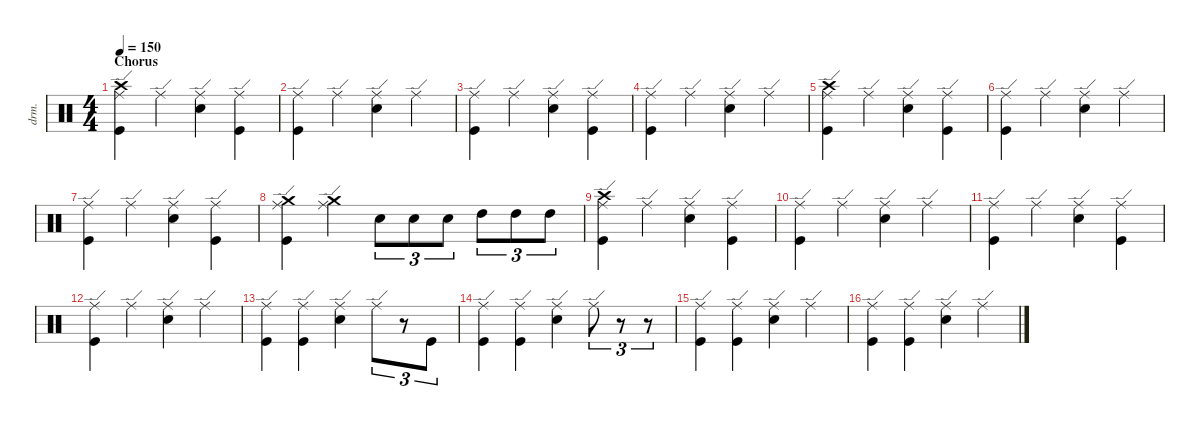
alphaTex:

\defaultSystemsLayout 4
\hideDynamics
\bracketExtendMode nobrackets
\otherSystemsTrackNameOrientation horizontal
\track ("Drumkit" "drm.") {solo instrument percussion}
\staff {score}
\articulation defaults
\ts (4 4)
\section ("" "Chorus")
\scale
1.15555
\tempo 150
\accidentals auto
\clef neutral
\ottava regular
\simile none
\ks aminor
("Kick (hit)" "Ride (edge)" "Crash high (hit)").4{dy mf beam Down} "Ride (edge)".4{beam Down} ("Ride (edge)" "Snare (hit) 2").4{beam Down} ("Kick (hit)" "Ride (edge)").4{beam Down} |
\scale
0.977779 ("Kick (hit)" "Ride (edge)").4{beam Down} "Ride (edge)".4{beam Down} ("Ride (edge)" "Snare (hit) 2").4{beam Down} "Ride (edge)".4{beam Down} |
\scale
0.977779 ("Kick (hit)" "Ride (edge)").4{beam Down} "Ride (edge)".4{beam Down} ("Ride (edge)" "Snare (hit) 2").4{beam Down} ("Kick (hit)" "Ride (edge)").4{beam Down} |
\scale
0.977779 ("Kick (hit)" "Ride (edge)").4{beam Down} "Ride (edge)".4{beam Down} ("Ride (edge)" "Snare (hit) 2").4{beam Down} "Ride (edge)".4{beam Down} |
\scale
0.977779 ("Kick (hit)" "Ride (edge)" "Crash high (hit)").4{beam Down} "Ride (edge)".4{beam Down} ("Ride (edge)" "Snare (hit) 2").4{beam Down} ("Kick (hit)" "Ride (edge)").4{beam Down} |
\scale
0.977779 ("Kick (hit)" "Ride (edge)").4{beam Down} "Ride (edge)".4{beam Down} ("Ride (edge)" "Snare (hit) 2").4{beam Down} "Ride (edge)".4{beam Down} |
\scale
0.977779 ("Kick (hit)" "Ride (edge)").4{beam Down} "Ride (edge)".4{beam Down} ("Ride (edge)" "Snare (hit) 2").4{beam Down} ("Kick (hit)" "Ride (edge)").4{beam Down} |
\scale
0.977779 ("Kick (hit)" "Ride (edge)" "Crash medium (hit)").4{beam Down} ("Ride (edge)" "Crash medium (hit)").4{beam Down} "Snare (hit) 2".8{tu (3 2) beam Down} "Snare (hit) 2".8{tu (3 2) beam Down} "Snare (hit) 2".8{tu (3 2) beam Down} "High Tom (hit)".8{tu (3 2) beam Down} "High Tom (hit)".8{tu (3 2) beam Down} "High Tom (hit)".8{tu (3 2) beam Down} |
\scale
1.16034 ("Kick (hit)" "Ride (edge)" "Crash high (hit)").4{beam Down} "Ride (edge)".4{beam Down} ("Ride (edge)" "Snare (hit) 2").4{beam Down} ("Kick (hit)" "Ride (edge)").4{beam Down} |
\scale
0.972042 ("Kick (hit)" "Ride (edge)").4{beam Down} "Ride (edge)".4{beam Down} ("Ride (edge)" "Snare (hit) 2").4{beam Down} "Ride (edge)".4{beam Down} |
\scale
0.972042 ("Kick (hit)" "Ride (edge)").4{beam Down} "Ride (edge)".4{beam Down} ("Ride (edge)" "Snare (hit) 2").4{beam Down} ("Kick (hit)" "Ride (edge)").4{beam Down} |
\scale
0.972042 ("Kick (hit)" "Ride (edge)").4{beam Down} "Ride (edge)".4{beam Down} ("Ride (edge)" "Snare (hit) 2").4{beam Down} "Ride (edge)".4{beam Down} |
\scale
0.972042 ("Kick (hit)" "Ride (edge)").4{beam Down} ("Ride (edge)" "Kick (hit)").4{beam Down} ("Ride (edge)" "Snare (hit) 2").4{beam Down} "Ride (edge)".8{tu (3 2) beam Down} r.8{tu (3 2) beam Down} "Kick (hit)".8{tu (3 2) beam Down} |
\scale
0.972042 ("Kick (hit)" "Ride (edge)").4{beam Down} ("Ride (edge)" "Kick (hit)").4{beam Down} ("Ride (edge)" "Snare (hit) 2").4{beam Down} "Ride (edge)".8{tu (3 2) beam Down} r.8{tu (3 2) beam Down} r.8{tu (3 2) beam Down} |
\scale
0.972042 ("Kick (hit)" "Ride (edge)").4{beam Down} ("Ride (edge)" "Kick (hit)").4{beam Down} ("Ride (edge)" "Snare (hit) 2").4{beam Down} "Ride (edge)".4{beam Down} |
\scale
1.00741 ("Kick (hit)" "Ride (edge)").4{beam Down} ("Ride (edge)" "Kick (hit)").4{beam Down} ("Ride (edge)" "Snare (hit) 2").4{beam Down} "Ride (edge)".4{beam Down}
